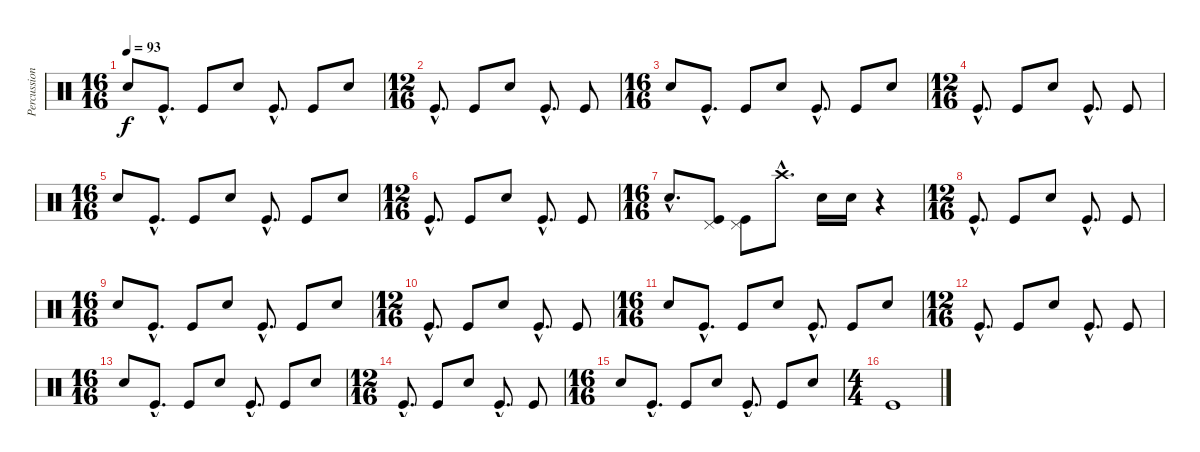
\track ("Percussion" "Percussion") {instrument percussion}
\staff {score}
\articulation defaults
\ts (16 16)
\tempo 93
\clef neutral
\ks c "Electric Snare (hit)".8{dy f} "Kick (hit)"{hac}.8{d} "Kick (hit)".8 "Electric Snare (hit)".8 "Kick (hit)"{hac}.8{d} "Kick (hit)".8 "Electric Snare (hit)".8
|
\ts (12 16)
"Kick (hit)"{hac}.8{d} "Kick (hit)".8 "Electric Snare (hit)".8 "Kick (hit)"{hac}.8{d} "Kick (hit)".8 |
\ts (16 16)
"Electric Snare (hit)".8 "Kick (hit)"{hac}.8{d} "Kick (hit)".8 "Electric Snare (hit)".8 "Kick (hit)"{hac}.8{d} "Kick (hit)".8 "Electric Snare (hit)".8 |
\ts (12 16)
"Kick (hit)"{hac}.8{d} "Kick (hit)".8 "Electric Snare (hit)".8 "Kick (hit)"{hac}.8{d} "Kick (hit)".8 |
\ts (16 16)
"Electric Snare (hit)".8 "Kick (hit)"{hac}.8{d} "Kick (hit)".8 "Electric Snare (hit)".8 "Kick (hit)"{hac}.8{d} "Kick (hit)".8 "Electric Snare (hit)".8 |
\ts (12 16)
"Kick (hit)"{hac}.8{d} "Kick (hit)".8 "Electric Snare (hit)".8 "Kick (hit)"{hac}.8{d} "Kick (hit)".8 |
\ts (16 16)
"Electric Snare (hit)"{hac}.8{d} ("Pedal Hi-Hat (hit)" "Kick (hit)").8 ("Pedal Hi-Hat (hit)" "Kick (hit)").8 "Crash high (hit)"{hac}.8{d} "Electric Snare (hit)".16 "Electric Snare (hit)".16 r.4 |
\ts (12 16)
"Kick (hit)"{hac}.8{d} "Kick (hit)".8 "Electric Snare (hit)".8 "Kick (hit)"{hac}.8{d} "Kick (hit)".8 |
\ts (16 16)
"Electric Snare (hit)".8 "Kick (hit)"{hac}.8{d} "Kick (hit)".8 "Electric Snare (hit)".8 "Kick (hit)"{hac}.8{d} "Kick (hit)".8 "Electric Snare (hit)".8 |
\ts (12 16)
"Kick (hit)"{hac}.8{d} "Kick (hit)".8 "Electric Snare (hit)".8 "Kick (hit)"{hac}.8{d} "Kick (hit)".8 |
\ts (16 16)
"Electric Snare (hit)".8 "Kick (hit)"{hac}.8{d} "Kick (hit)".8 "Electric Snare (hit)".8 "Kick (hit)"{hac}.8{d} "Kick (hit)".8 "Electric Snare (hit)".8 |
\ts (12 16)
"Kick (hit)"{hac}.8{d} "Kick (hit)".8 "Electric Snare (hit)".8 "Kick (hit)"{hac}.8{d} "Kick (hit)".8 |
\ts (16 16)
"Electric Snare (hit)".8 "Kick (hit)"{hac}.8{d} "Kick (hit)".8 "Electric Snare (hit)".8 "Kick (hit)"{hac}.8{d} "Kick (hit)".8 "Electric Snare (hit)".8 |
\ts (12 16)
"Kick (hit)"{hac}.8{d} "Kick (hit)".8 "Electric Snare (hit)".8 "Kick (hit)"{hac}.8{d} "Kick (hit)".8 |
\ts (16 16)
"Electric Snare (hit)".8 "Kick (hit)"{hac}.8{d} "Kick (hit)".8 "Electric Snare (hit)".8 "Kick (hit)"{hac}.8{d} "Kick (hit)".8 "Electric Snare (hit)".8 |
\ts (4 4)
"Kick (hit)".1
